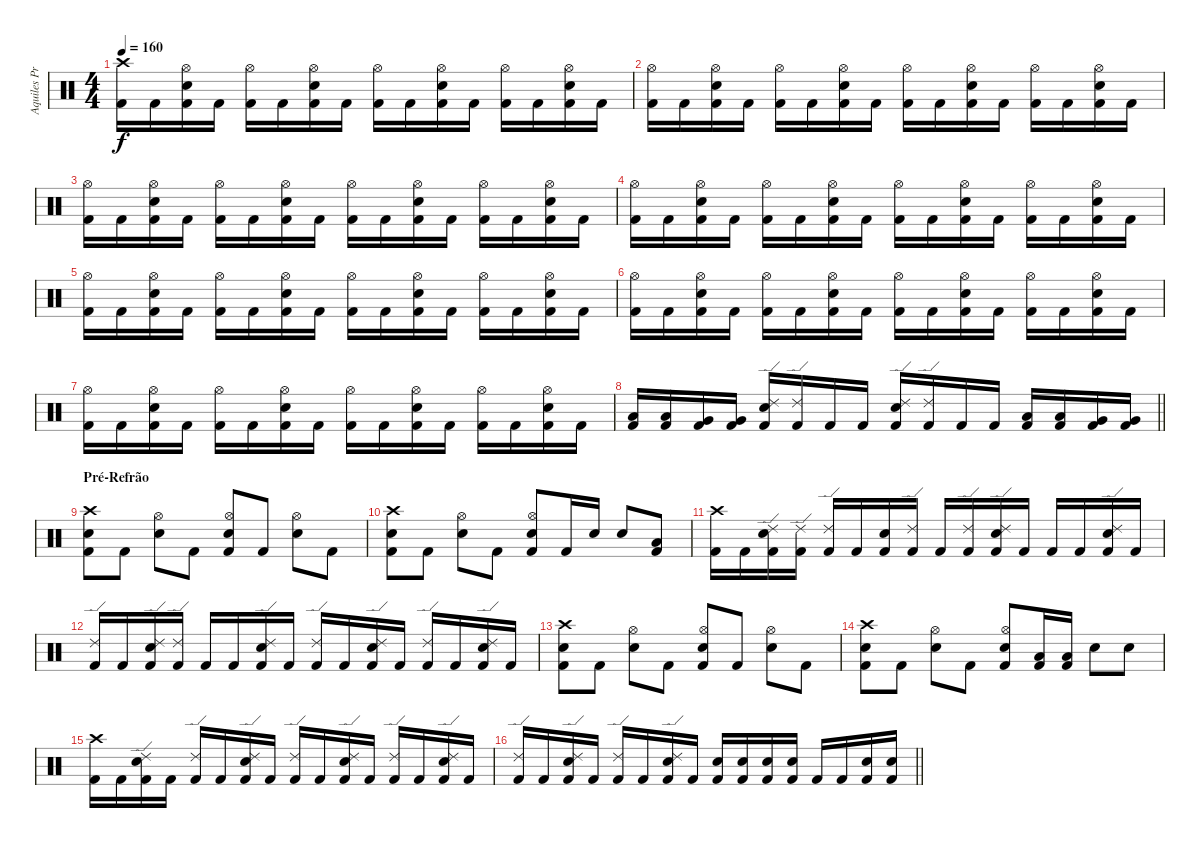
\track ("Aquiles Priester" "Aquiles Pr") {instrument percussion}
\staff {score}
\articulation defaults
\ts (4 4)
\tempo 160
\clef neutral
\ks c
("Crash high (hit)" "Kick (hit) 2").16{dy f} "Kick (hit) 2".16 ("Hi-Hat (open)" "Electric Snare (hit)" "Kick (hit) 2").16 "Kick (hit) 2".16 ("Hi-Hat (open)" "Kick (hit) 2").16 "Kick (hit) 2".16 ("Hi-Hat (open)" "Electric Snare (hit)" "Kick (hit) 2").16 "Kick (hit) 2".16 ("Hi-Hat (open)" "Kick (hit) 2").16 "Kick (hit) 2".16 ("Hi-Hat (open)" "Electric Snare (hit)" "Kick (hit) 2").16 "Kick (hit) 2".16 ("Hi-Hat (open)" "Kick (hit) 2").16 "Kick (hit) 2".16 ("Hi-Hat (open)" "Electric Snare (hit)" "Kick (hit) 2").16 "Kick (hit) 2".16 |
("Hi-Hat (open)" "Kick (hit) 2").16 "Kick (hit) 2".16 ("Hi-Hat (open)" "Electric Snare (hit)" "Kick (hit) 2").16 "Kick (hit) 2".16 ("Hi-Hat (open)" "Kick (hit) 2").16 "Kick (hit) 2".16 ("Hi-Hat (open)" "Electric Snare (hit)" "Kick (hit) 2").16 "Kick (hit) 2".16 ("Hi-Hat (open)" "Kick (hit) 2").16 "Kick (hit) 2".16 ("Hi-Hat (open)" "Electric Snare (hit)" "Kick (hit) 2").16 "Kick (hit) 2".16 ("Hi-Hat (open)" "Kick (hit) 2").16 "Kick (hit) 2".16 ("Hi-Hat (open)" "Electric Snare (hit)" "Kick (hit) 2").16 "Kick (hit) 2".16 |
("Hi-Hat (open)" "Kick (hit) 2").16 "Kick (hit) 2".16 ("Hi-Hat (open)" "Electric Snare (hit)" "Kick (hit) 2").16 "Kick (hit) 2".16 ("Hi-Hat (open)" "Kick (hit) 2").16 "Kick (hit) 2".16 ("Hi-Hat (open)" "Electric Snare (hit)" "Kick (hit) 2").16 "Kick (hit) 2".16 ("Hi-Hat (open)" "Kick (hit) 2").16 "Kick (hit) 2".16 ("Hi-Hat (open)" "Electric Snare (hit)" "Kick (hit) 2").16 "Kick (hit) 2".16 ("Hi-Hat (open)" "Kick (hit) 2").16 "Kick (hit) 2".16 ("Hi-Hat (open)" "Electric Snare (hit)" "Kick (hit) 2").16 "Kick (hit) 2".16 |
("Hi-Hat (open)" "Kick (hit) 2").16 "Kick (hit) 2".16 ("Hi-Hat (open)" "Electric Snare (hit)" "Kick (hit) 2").16 "Kick (hit) 2".16 ("Hi-Hat (open)" "Kick (hit) 2").16 "Kick (hit) 2".16 ("Hi-Hat (open)" "Electric Snare (hit)" "Kick (hit) 2").16 "Kick (hit) 2".16 ("Hi-Hat (open)" "Kick (hit) 2").16 "Kick (hit) 2".16 ("Hi-Hat (open)" "Electric Snare (hit)" "Kick (hit) 2").16 "Kick (hit) 2".16 ("Hi-Hat (open)" "Kick (hit) 2").16 "Kick (hit) 2".16 ("Hi-Hat (open)" "Electric Snare (hit)" "Kick (hit) 2").16 "Kick (hit) 2".16 |
("Hi-Hat (open)" "Kick (hit) 2").16 "Kick (hit) 2".16 ("Hi-Hat (open)" "Electric Snare (hit)" "Kick (hit) 2").16 "Kick (hit) 2".16 ("Hi-Hat (open)" "Kick (hit) 2").16 "Kick (hit) 2".16 ("Hi-Hat (open)" "Electric Snare (hit)" "Kick (hit) 2").16 "Kick (hit) 2".16 ("Hi-Hat (open)" "Kick (hit) 2").16 "Kick (hit) 2".16 ("Hi-Hat (open)" "Electric Snare (hit)" "Kick (hit) 2").16 "Kick (hit) 2".16 ("Hi-Hat (open)" "Kick (hit) 2").16 "Kick (hit) 2".16 ("Hi-Hat (open)" "Electric Snare (hit)" "Kick (hit) 2").16 "Kick (hit) 2".16 |
("Hi-Hat (open)" "Kick (hit) 2").16 "Kick (hit) 2".16 ("Hi-Hat (open)" "Electric Snare (hit)" "Kick (hit) 2").16 "Kick (hit) 2".16 ("Hi-Hat (open)" "Kick (hit) 2").16 "Kick (hit) 2".16 ("Hi-Hat (open)" "Electric Snare (hit)" "Kick (hit) 2").16 "Kick (hit) 2".16 ("Hi-Hat (open)" "Kick (hit) 2").16 "Kick (hit) 2".16 ("Hi-Hat (open)" "Electric Snare (hit)" "Kick (hit) 2").16 "Kick (hit) 2".16 ("Hi-Hat (open)" "Kick (hit) 2").16 "Kick (hit) 2".16 ("Hi-Hat (open)" "Electric Snare (hit)" "Kick (hit) 2").16 "Kick (hit) 2".16 |
("Hi-Hat (open)" "Kick (hit) 2").16 "Kick (hit) 2".16 ("Hi-Hat (open)" "Electric Snare (hit)" "Kick (hit) 2").16 "Kick (hit) 2".16 ("Hi-Hat (open)" "Kick (hit) 2").16 "Kick (hit) 2".16 ("Hi-Hat (open)" "Electric Snare (hit)" "Kick (hit) 2").16 "Kick (hit) 2".16 ("Hi-Hat (open)" "Kick (hit) 2").16 "Kick (hit) 2".16 ("Hi-Hat (open)" "Electric Snare (hit)" "Kick (hit) 2").16 "Kick (hit) 2".16 ("Hi-Hat (open)" "Kick (hit) 2").16 "Kick (hit) 2".16 ("Hi-Hat (open)" "Electric Snare (hit)" "Kick (hit) 2").16 "Kick (hit) 2".16 |
\barLineRight lightlight
("Low Tom (hit)" "Kick (hit) 2").16 ("Low Tom (hit)" "Kick (hit) 2").16 ("Very Low Tom (hit)" "Kick (hit) 2").16 ("Very Low Tom (hit)" "Kick (hit) 2").16 ("Ride (edge) 2" "Electric Snare (hit)" "Kick (hit) 2").16 ("Ride (edge) 2" "Kick (hit) 2").16 "Kick (hit) 2".16 "Kick (hit) 2".16 ("Ride (edge) 2" "Electric Snare (hit)" "Kick (hit) 2").16 ("Ride (edge) 2" "Kick (hit) 2").16 "Kick (hit) 2".16 "Kick (hit) 2".16 ("Low Tom (hit)" "Kick (hit) 2").16 ("Low Tom (hit)" "Kick (hit) 2").16 ("Very Low Tom (hit)" "Kick (hit) 2").16 ("Very Low Tom (hit)" "Kick (hit) 2").16 |
\section ("" "Pré-Refrão")
("Crash high (hit)" "Electric Snare (hit)" "Kick (hit) 2").8 "Kick (hit) 2".8 ("Hi-Hat (open)" "Electric Snare (hit)").8 "Kick (hit) 2".8 ("Hi-Hat (open)" "Electric Snare (hit)" "Kick (hit) 2").8 "Kick (hit) 2".8 ("Hi-Hat (open)" "Electric Snare (hit)").8 "Kick (hit) 2".8 |
("Crash high (hit)" "Electric Snare (hit)" "Kick (hit) 2").8 "Kick (hit) 2".8 ("Hi-Hat (open)" "Electric Snare (hit)").8 "Kick (hit) 2".8 ("Hi-Hat (open)" "Electric Snare (hit)" "Kick (hit) 2").8 "Kick (hit) 2".16 "Electric Snare (hit)".16 "Electric Snare (hit)".8 ("Low Tom (hit)" "Kick (hit) 2").8 |
("Crash high (hit)" "Kick (hit) 2").16 "Kick (hit) 2".16 ("Ride (edge) 2" "Electric Snare (hit)" "Kick (hit) 2").16 ("Ride (edge) 2" "Kick (hit) 2").16 ("Ride (edge) 2" "Kick (hit) 2").16 "Kick (hit) 2".16 ("Electric Snare (hit)" "Kick (hit) 2").16 ("Ride (edge) 2" "Kick (hit) 2").16 "Kick (hit) 2".16 ("Ride (edge) 2" "Kick (hit) 2").16 ("Ride (edge) 2" "Electric Snare (hit)" "Kick (hit) 2").16 "Kick (hit) 2".16 "Kick (hit) 2".16 "Kick (hit) 2".16 ("Ride (edge) 2" "Electric Snare (hit)" "Kick (hit) 2").16 "Kick (hit) 2".16 |
("Ride (edge) 2" "Kick (hit) 2").16 "Kick (hit) 2".16 ("Ride (edge) 2" "Electric Snare (hit)" "Kick (hit) 2").16 ("Ride (edge) 2" "Kick (hit) 2").16 "Kick (hit) 2".16 "Kick (hit) 2".16 ("Ride (edge) 2" "Electric Snare (hit)" "Kick (hit) 2").16 "Kick (hit) 2".16 ("Ride (edge) 2" "Kick (hit) 2").16 "Kick (hit) 2".16 ("Ride (edge) 2" "Electric Snare (hit)" "Kick (hit) 2").16 "Kick (hit) 2".16 ("Ride (edge) 2" "Kick (hit) 2").16 "Kick (hit) 2".16 ("Ride (edge) 2" "Electric Snare (hit)" "Kick (hit) 2").16 "Kick (hit) 2".16 |
("Crash high (hit)" "Electric Snare (hit)" "Kick (hit) 2").8 "Kick (hit) 2".8 ("Hi-Hat (open)" "Electric Snare (hit)").8 "Kick (hit) 2".8 ("Hi-Hat (open)" "Electric Snare (hit)" "Kick (hit) 2").8 "Kick (hit) 2".8 ("Hi-Hat (open)" "Electric Snare (hit)").8 "Kick (hit) 2".8 |
("Crash high (hit)" "Electric Snare (hit)" "Kick (hit) 2").8 "Kick (hit) 2".8 ("Hi-Hat (open)" "Electric Snare (hit)").8 "Kick (hit) 2".8 ("Hi-Hat (open)" "Electric Snare (hit)" "Kick (hit) 2").8 ("Low Tom (hit)" "Kick (hit) 2").16 ("Low Tom (hit)" "Kick (hit) 2").16 "Electric Snare (hit)".8 "Electric Snare (hit)".8 |
("Crash high (hit)" "Kick (hit) 2").16 "Kick (hit) 2".16 ("Ride (edge) 2" "Electric Snare (hit)" "Kick (hit) 2").16 "Kick (hit) 2".16 ("Ride (edge) 2" "Kick (hit) 2").16 "Kick (hit) 2".16 ("Ride (edge) 2" "Electric Snare (hit)" "Kick (hit) 2").16 "Kick (hit) 2".16 ("Ride (edge) 2" "Kick (hit) 2").16 "Kick (hit) 2".16 ("Ride (edge) 2" "Electric Snare (hit)" "Kick (hit) 2").16 "Kick (hit) 2".16 ("Ride (edge) 2" "Kick (hit) 2").16 "Kick (hit) 2".16 ("Ride (edge) 2" "Electric Snare (hit)" "Kick (hit) 2").16 "Kick (hit) 2".16 |
\barLineRight lightlight
("Ride (edge) 2" "Kick (hit) 2").16 "Kick (hit) 2".16 ("Ride (edge) 2" "Electric Snare (hit)" "Kick (hit) 2").16 "Kick (hit) 2".16 ("Ride (edge) 2" "Kick (hit) 2").16 "Kick (hit) 2".16 ("Ride (edge) 2" "Electric Snare (hit)" "Kick (hit) 2").16 "Kick (hit) 2".16 ("Electric Snare (hit)" "Kick (hit) 2").16 ("Electric Snare (hit)" "Kick (hit) 2").16 ("Electric Snare (hit)" "Kick (hit) 2").16 ("Electric Snare (hit)" "Kick (hit) 2").16 "Kick (hit) 2".16 "Kick (hit) 2".16 ("Electric Snare (hit)" "Kick (hit) 2").16 ("Electric Snare (hit)" "Kick (hit) 2").16
